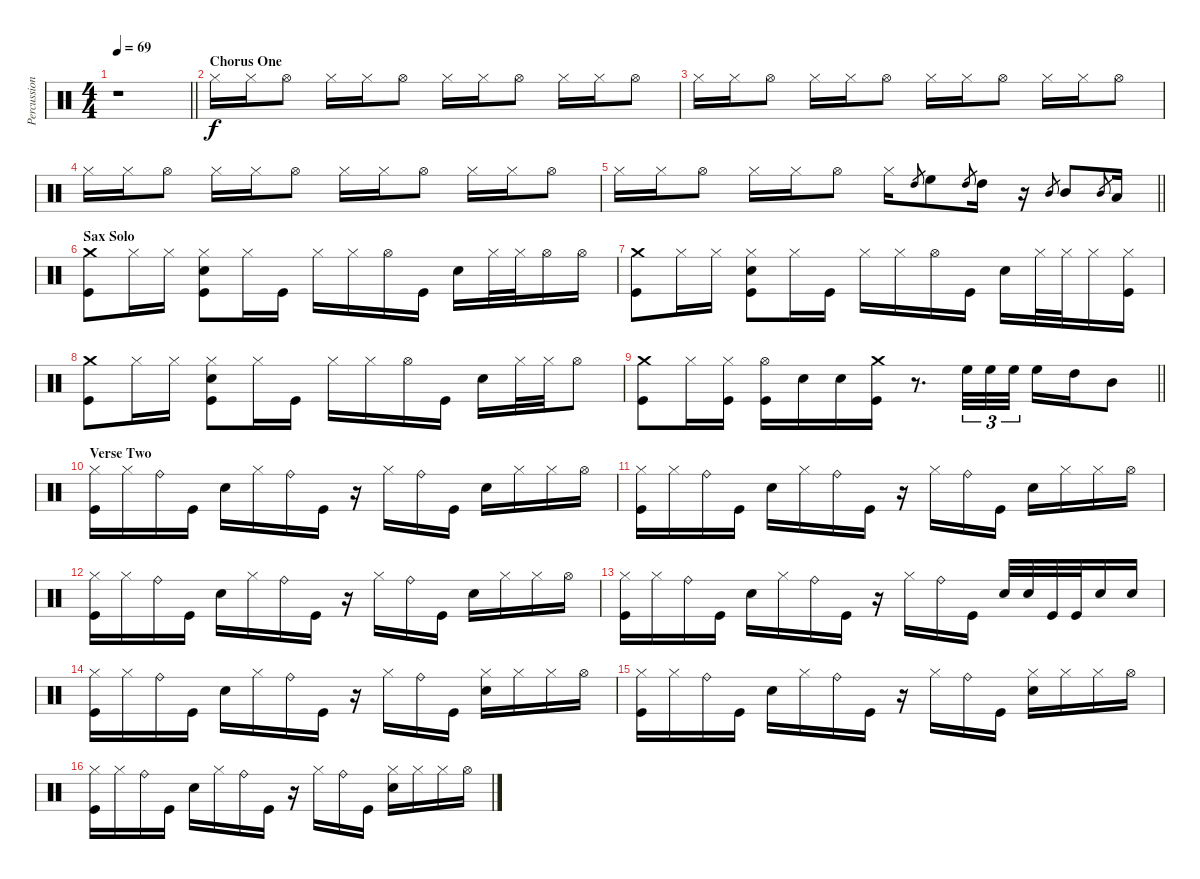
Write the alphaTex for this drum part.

\track ("Percussion" "Percussion") {instrument percussion}
\staff {score}
\articulation defaults
\ts (4 4)
\tempo 69
\clef neutral
\barLineRight lightlight
\ks c
r.1{dy f} |
\section ("" "Chorus One")
"Hi-Hat (closed)".16 "Hi-Hat (closed)".16 "Hi-Hat (open)".8 "Hi-Hat (closed)".16 "Hi-Hat (closed)".16 "Hi-Hat (open)".8 "Hi-Hat (closed)".16 "Hi-Hat (closed)".16 "Hi-Hat (open)".8 "Hi-Hat (closed)".16 "Hi-Hat (closed)".16 "Hi-Hat (open)".8 |
"Hi-Hat (closed)".16 "Hi-Hat (closed)".16 "Hi-Hat (open)".8 "Hi-Hat (closed)".16 "Hi-Hat (closed)".16 "Hi-Hat (open)".8 "Hi-Hat (closed)".16 "Hi-Hat (closed)".16 "Hi-Hat (open)".8 "Hi-Hat (closed)".16 "Hi-Hat (closed)".16 "Hi-Hat (open)".8 |
"Hi-Hat (closed)".16 "Hi-Hat (closed)".16 "Hi-Hat (open)".8 "Hi-Hat (closed)".16 "Hi-Hat (closed)".16 "Hi-Hat (open)".8 "Hi-Hat (closed)".16 "Hi-Hat (closed)".16 "Hi-Hat (open)".8 "Hi-Hat (closed)".16 "Hi-Hat (closed)".16 "Hi-Hat (open)".8 |
\barLineRight lightlight "Hi-Hat (closed)".16 "Hi-Hat (closed)".16 "Hi-Hat (open)".8 "Hi-Hat (closed)".16 "Hi-Hat (closed)".16 "Hi-Hat (open)".8 "Hi-Hat (closed)".16 "High Tom (hit)".8{gr} "High Floor Tom (hit)".8 "High Tom (hit)".8{gr} "High Tom (hit)".16
r.16 "Mid Tom (hit)".8{gr} "Mid Tom (hit)".8 "Mid Tom (hit)".8{gr} "Low Tom (hit)".16 |
\section ("" "Sax Solo")
("Crash medium (hit)" "Kick (hit)").8 "Hi-Hat (closed)".16 "Hi-Hat (closed)".16 ("Hi-Hat (closed)" "Kick (hit)" "Electric Snare (hit)").8 "Hi-Hat (closed)".16 "Kick (hit)".16 "Hi-Hat (closed)".16 "Hi-Hat (closed)".16 "Hi-Hat (open)".16 "Kick (hit)".16 "Electric Snare (hit)".16 "Hi-Hat (closed)".32 "Hi-Hat (closed)".32 "Hi-Hat (open)".16 "Hi-Hat (open)".16 |
("Crash medium (hit)" "Kick (hit)").8 "Hi-Hat (closed)".16 "Hi-Hat (closed)".16 ("Hi-Hat (closed)" "Kick (hit)" "Electric Snare (hit)").8 "Hi-Hat (closed)".16 "Kick (hit)".16 "Hi-Hat (closed)".16 "Hi-Hat (closed)".16 "Hi-Hat (open)".16 "Kick (hit)".16 "Electric Snare (hit)".16 "Hi-Hat (closed)".32 "Hi-Hat (closed)".32 "Hi-Hat (closed)".16 ("Hi-Hat (closed)" "Kick (hit)").16 |
("Crash medium (hit)" "Kick (hit)").8 "Hi-Hat (closed)".16 "Hi-Hat (closed)".16 ("Hi-Hat (closed)" "Kick (hit)" "Electric Snare (hit)").8 "Hi-Hat (closed)".16 "Kick (hit)".16 "Hi-Hat (closed)".16 "Hi-Hat (closed)".16 "Hi-Hat (open)".16 "Kick (hit)".16 "Electric Snare (hit)".16 "Hi-Hat (closed)".32 "Hi-Hat (closed)".32 "Hi-Hat (open)".8 |
\barLineRight lightlight
("Crash medium (hit)" "Kick (hit)").8 "Hi-Hat (closed)".16 ("Hi-Hat (closed)" "Kick (hit)").16 ("Hi-Hat (open)" "Kick (hit)").16 "Electric Snare (hit)".16 "Electric Snare (hit)".16 ("Crash medium (hit)" "Kick (hit)").16 r.8{d} "High Floor Tom (hit)".32{tu (3 2)} "High Floor Tom (hit)".32{tu (3 2)} "High Floor Tom (hit)".32{tu (3 2)} "High Floor Tom (hit)".16 "High Tom (hit)".16 "Mid Tom (hit)".8 |
\section ("" "Verse Two")
("Hi-Hat (closed)" "Kick (hit)").16 "Hi-Hat (closed)".16 "Ride (bell)".16 "Kick (hit)".16 "Electric Snare (hit)".16 "Hi-Hat (closed)".16 "Ride (bell)".16 "Kick (hit)".16 r.16 "Hi-Hat (closed)".16 "Ride (bell)".16 "Kick (hit)".16 "Electric Snare (hit)".16 "Hi-Hat (closed)".16 "Hi-Hat (closed)".16 "Hi-Hat (open)".16 |
("Hi-Hat (closed)" "Kick (hit)").16 "Hi-Hat (closed)".16 "Ride (bell)".16 "Kick (hit)".16 "Electric Snare (hit)".16 "Hi-Hat (closed)".16 "Ride (bell)".16 "Kick (hit)".16 r.16 "Hi-Hat (closed)".16 "Ride (bell)".16 "Kick (hit)".16 "Electric Snare (hit)".16 "Hi-Hat (closed)".16 "Hi-Hat (closed)".16 "Hi-Hat (open)".16 |
("Hi-Hat (closed)" "Kick (hit)").16 "Hi-Hat (closed)".16 "Ride (bell)".16 "Kick (hit)".16 "Electric Snare (hit)".16 "Hi-Hat (closed)".16 "Ride (bell)".16 "Kick (hit)".16 r.16 "Hi-Hat (closed)".16 "Ride (bell)".16 "Kick (hit)".16 "Electric Snare (hit)".16 "Hi-Hat (closed)".16 "Hi-Hat (closed)".16 "Hi-Hat (open)".16 |
("Hi-Hat (closed)" "Kick (hit)").16 "Hi-Hat (closed)".16 "Ride (bell)".16 "Kick (hit)".16 "Electric Snare (hit)".16 "Hi-Hat (closed)".16 "Ride (bell)".16 "Kick (hit)".16 r.16 "Hi-Hat (closed)".16 "Ride (bell)".16 "Kick (hit)".16 "Electric Snare (hit)".32 "Electric Snare (hit)".32 "Kick (hit)".32 "Kick (hit)".32 "Electric Snare (hit)".16 "Electric Snare (hit)".16 |
("Hi-Hat (closed)" "Kick (hit)").16 "Hi-Hat (closed)".16 "Ride (bell)".16 "Kick (hit)".16 "Electric Snare (hit)".16 "Hi-Hat (closed)".16 "Ride (bell)".16 "Kick (hit)".16 r.16 "Hi-Hat (closed)".16 "Ride (bell)".16 "Kick (hit)".16 ("Hi-Hat (closed)" "Electric Snare (hit)").16 "Hi-Hat (closed)".16 "Hi-Hat (closed)".16 "Hi-Hat (open)".16 |
("Hi-Hat (closed)" "Kick (hit)").16 "Hi-Hat (closed)".16 "Ride (bell)".16 "Kick (hit)".16 "Electric Snare (hit)".16 "Hi-Hat (closed)".16 "Ride (bell)".16 "Kick (hit)".16 r.16 "Hi-Hat (closed)".16 "Ride (bell)".16 "Kick (hit)".16 ("Hi-Hat (closed)" "Electric Snare (hit)").16 "Hi-Hat (closed)".16 "Hi-Hat (closed)".16 "Hi-Hat (open)".16 |
("Hi-Hat (closed)" "Kick (hit)").16 "Hi-Hat (closed)".16 "Ride (bell)".16 "Kick (hit)".16 "Electric Snare (hit)".16 "Hi-Hat (closed)".16 "Ride (bell)".16 "Kick (hit)".16 r.16 "Hi-Hat (closed)".16 "Ride (bell)".16 "Kick (hit)".16 ("Hi-Hat (closed)" "Electric Snare (hit)").16 "Hi-Hat (closed)".16 "Hi-Hat (closed)".16 "Hi-Hat (open)".16
